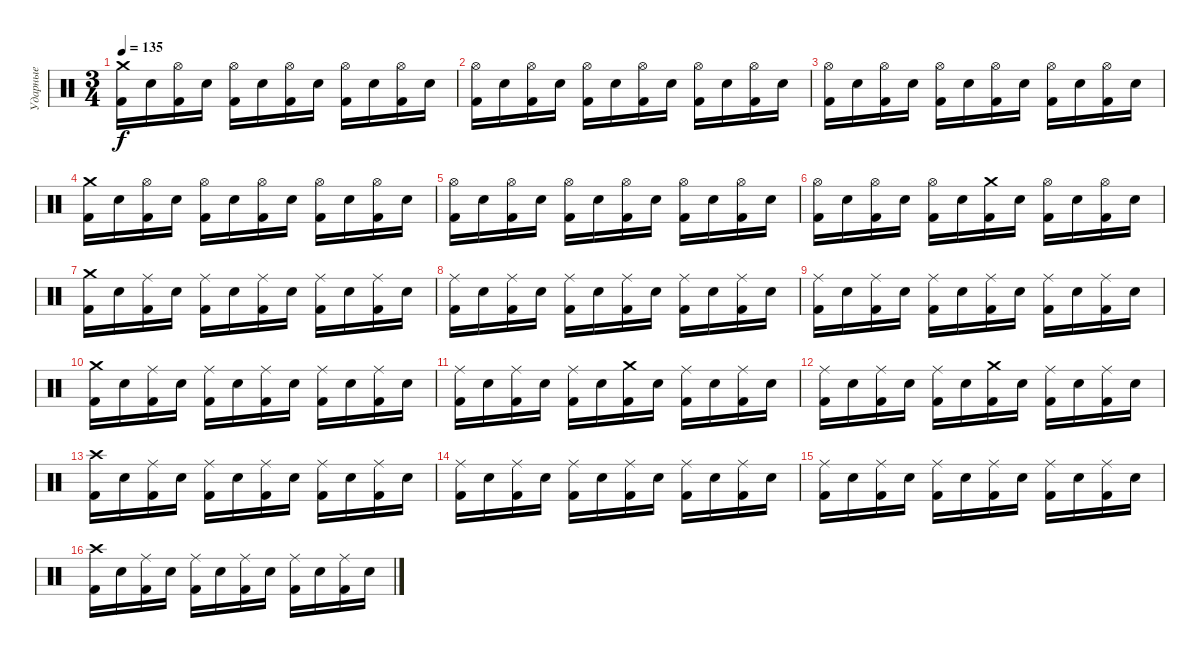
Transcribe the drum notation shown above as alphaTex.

\track ("Ударные" "Ударные") {instrument percussion}
\staff {score}
\articulation defaults
\ts (3 4)
\tempo 135
\clef neutral
\ks c
("Crash medium (hit)" "Kick (hit) 2").16{dy f} "Electric Snare (hit)".16 ("Hi-Hat (open)" "Kick (hit) 2").16 "Electric Snare (hit)".16 ("Hi-Hat (open)" "Kick (hit) 2").16 "Electric Snare (hit)".16 ("Hi-Hat (open)" "Kick (hit) 2").16 "Electric Snare (hit)".16 ("Hi-Hat (open)" "Kick (hit) 2").16 "Electric Snare (hit)".16 ("Hi-Hat (open)" "Kick (hit) 2").16 "Electric Snare (hit)".16 |
("Hi-Hat (open)" "Kick (hit) 2").16 "Electric Snare (hit)".16 ("Hi-Hat (open)" "Kick (hit) 2").16 "Electric Snare (hit)".16 ("Hi-Hat (open)" "Kick (hit) 2").16 "Electric Snare (hit)".16 ("Hi-Hat (open)" "Kick (hit) 2").16 "Electric Snare (hit)".16 ("Hi-Hat (open)" "Kick (hit) 2").16 "Electric Snare (hit)".16 ("Hi-Hat (open)" "Kick (hit) 2").16 "Electric Snare (hit)".16 |
("Hi-Hat (open)" "Kick (hit) 2").16 "Electric Snare (hit)".16 ("Hi-Hat (open)" "Kick (hit) 2").16 "Electric Snare (hit)".16 ("Hi-Hat (open)" "Kick (hit) 2").16 "Electric Snare (hit)".16 ("Hi-Hat (open)" "Kick (hit) 2").16 "Electric Snare (hit)".16 ("Hi-Hat (open)" "Kick (hit) 2").16 "Electric Snare (hit)".16 ("Hi-Hat (open)" "Kick (hit) 2").16 "Electric Snare (hit)".16 |
("Crash medium (hit)" "Kick (hit) 2").16 "Electric Snare (hit)".16 ("Hi-Hat (open)" "Kick (hit) 2").16 "Electric Snare (hit)".16 ("Hi-Hat (open)" "Kick (hit) 2").16 "Electric Snare (hit)".16 ("Hi-Hat (open)" "Kick (hit) 2").16 "Electric Snare (hit)".16 ("Hi-Hat (open)" "Kick (hit) 2").16 "Electric Snare (hit)".16 ("Hi-Hat (open)" "Kick (hit) 2").16 "Electric Snare (hit)".16 |
("Hi-Hat (open)" "Kick (hit) 2").16 "Electric Snare (hit)".16 ("Hi-Hat (open)" "Kick (hit) 2").16 "Electric Snare (hit)".16 ("Hi-Hat (open)" "Kick (hit) 2").16 "Electric Snare (hit)".16 ("Hi-Hat (open)" "Kick (hit) 2").16 "Electric Snare (hit)".16 ("Hi-Hat (open)" "Kick (hit) 2").16 "Electric Snare (hit)".16 ("Hi-Hat (open)" "Kick (hit) 2").16 "Electric Snare (hit)".16 |
("Hi-Hat (open)" "Kick (hit) 2").16 "Electric Snare (hit)".16 ("Hi-Hat (open)" "Kick (hit) 2").16 "Electric Snare (hit)".16 ("Hi-Hat (open)" "Kick (hit) 2").16 "Electric Snare (hit)".16 ("Crash medium (hit)" "Kick (hit) 2").16 "Electric Snare (hit)".16 ("Hi-Hat (open)" "Kick (hit) 2").16 "Electric Snare (hit)".16 ("Hi-Hat (open)" "Kick (hit) 2").16 "Electric Snare (hit)".16 |
("Crash medium (hit)" "Kick (hit) 2").16 "Electric Snare (hit)".16 ("Ride (middle)" "Kick (hit) 2").16 "Electric Snare (hit)".16 ("Ride (middle)" "Kick (hit) 2").16 "Electric Snare (hit)".16 ("Ride (middle)" "Kick (hit) 2").16 "Electric Snare (hit)".16 ("Ride (middle)" "Kick (hit) 2").16 "Electric Snare (hit)".16 ("Ride (middle)" "Kick (hit) 2").16 "Electric Snare (hit)".16 |
("Ride (middle)" "Kick (hit) 2").16 "Electric Snare (hit)".16 ("Ride (middle)" "Kick (hit) 2").16 "Electric Snare (hit)".16 ("Ride (middle)" "Kick (hit) 2").16 "Electric Snare (hit)".16 ("Ride (middle)" "Kick (hit) 2").16 "Electric Snare (hit)".16 ("Ride (middle)" "Kick (hit) 2").16 "Electric Snare (hit)".16 ("Ride (middle)" "Kick (hit) 2").16 "Electric Snare (hit)".16 |
("Ride (middle)" "Kick (hit) 2").16 "Electric Snare (hit)".16 ("Ride (middle)" "Kick (hit) 2").16 "Electric Snare (hit)".16 ("Ride (middle)" "Kick (hit) 2").16 "Electric Snare (hit)".16 ("Ride (middle)" "Kick (hit) 2").16 "Electric Snare (hit)".16 ("Ride (middle)" "Kick (hit) 2").16 "Electric Snare (hit)".16 ("Ride (middle)" "Kick (hit) 2").16 "Electric Snare (hit)".16 |
("Crash medium (hit)" "Kick (hit) 2").16 "Electric Snare (hit)".16 ("Ride (middle)" "Kick (hit) 2").16 "Electric Snare (hit)".16 ("Ride (middle)" "Kick (hit) 2").16 "Electric Snare (hit)".16 ("Ride (middle)" "Kick (hit) 2").16 "Electric Snare (hit)".16 ("Ride (middle)" "Kick (hit) 2").16 "Electric Snare (hit)".16 ("Ride (middle)" "Kick (hit) 2").16 "Electric Snare (hit)".16 |
("Ride (middle)" "Kick (hit) 2").16 "Electric Snare (hit)".16 ("Ride (middle)" "Kick (hit) 2").16 "Electric Snare (hit)".16 ("Ride (middle)" "Kick (hit) 2").16 "Electric Snare (hit)".16 ("Crash medium (hit)" "Kick (hit) 2").16 "Electric Snare (hit)".16 ("Ride (middle)" "Kick (hit) 2").16 "Electric Snare (hit)".16 ("Ride (middle)" "Kick (hit) 2").16 "Electric Snare (hit)".16 |
("Ride (middle)" "Kick (hit) 2").16 "Electric Snare (hit)".16 ("Ride (middle)" "Kick (hit) 2").16 "Electric Snare (hit)".16 ("Ride (middle)" "Kick (hit) 2").16 "Electric Snare (hit)".16 ("Crash medium (hit)" "Kick (hit) 2").16 "Electric Snare (hit)".16 ("Ride (middle)" "Kick (hit) 2").16 "Electric Snare (hit)".16 ("Ride (middle)" "Kick (hit) 2").16 "Electric Snare (hit)".16 |
("Crash high (hit)" "Kick (hit) 2").16 "Electric Snare (hit)".16 ("Ride (middle)" "Kick (hit) 2").16 "Electric Snare (hit)".16 ("Ride (middle)" "Kick (hit) 2").16 "Electric Snare (hit)".16 ("Ride (middle)" "Kick (hit) 2").16 "Electric Snare (hit)".16 ("Ride (middle)" "Kick (hit) 2").16 "Electric Snare (hit)".16 ("Ride (middle)" "Kick (hit) 2").16 "Electric Snare (hit)".16 |
("Ride (middle)" "Kick (hit) 2").16 "Electric Snare (hit)".16 ("Ride (middle)" "Kick (hit) 2").16 "Electric Snare (hit)".16 ("Ride (middle)" "Kick (hit) 2").16 "Electric Snare (hit)".16 ("Ride (middle)" "Kick (hit) 2").16 "Electric Snare (hit)".16 ("Ride (middle)" "Kick (hit) 2").16 "Electric Snare (hit)".16 ("Ride (middle)" "Kick (hit) 2").16 "Electric Snare (hit)".16 |
("Ride (middle)" "Kick (hit) 2").16 "Electric Snare (hit)".16 ("Ride (middle)" "Kick (hit) 2").16 "Electric Snare (hit)".16 ("Ride (middle)" "Kick (hit) 2").16 "Electric Snare (hit)".16 ("Ride (middle)" "Kick (hit) 2").16 "Electric Snare (hit)".16 ("Ride (middle)" "Kick (hit) 2").16 "Electric Snare (hit)".16 ("Ride (middle)" "Kick (hit) 2").16 "Electric Snare (hit)".16 |
("Crash high (hit)" "Kick (hit) 2").16 "Electric Snare (hit)".16 ("Ride (middle)" "Kick (hit) 2").16 "Electric Snare (hit)".16 ("Ride (middle)" "Kick (hit) 2").16 "Electric Snare (hit)".16 ("Ride (middle)" "Kick (hit) 2").16 "Electric Snare (hit)".16 ("Ride (middle)" "Kick (hit) 2").16 "Electric Snare (hit)".16 ("Ride (middle)" "Kick (hit) 2").16 "Electric Snare (hit)".16
